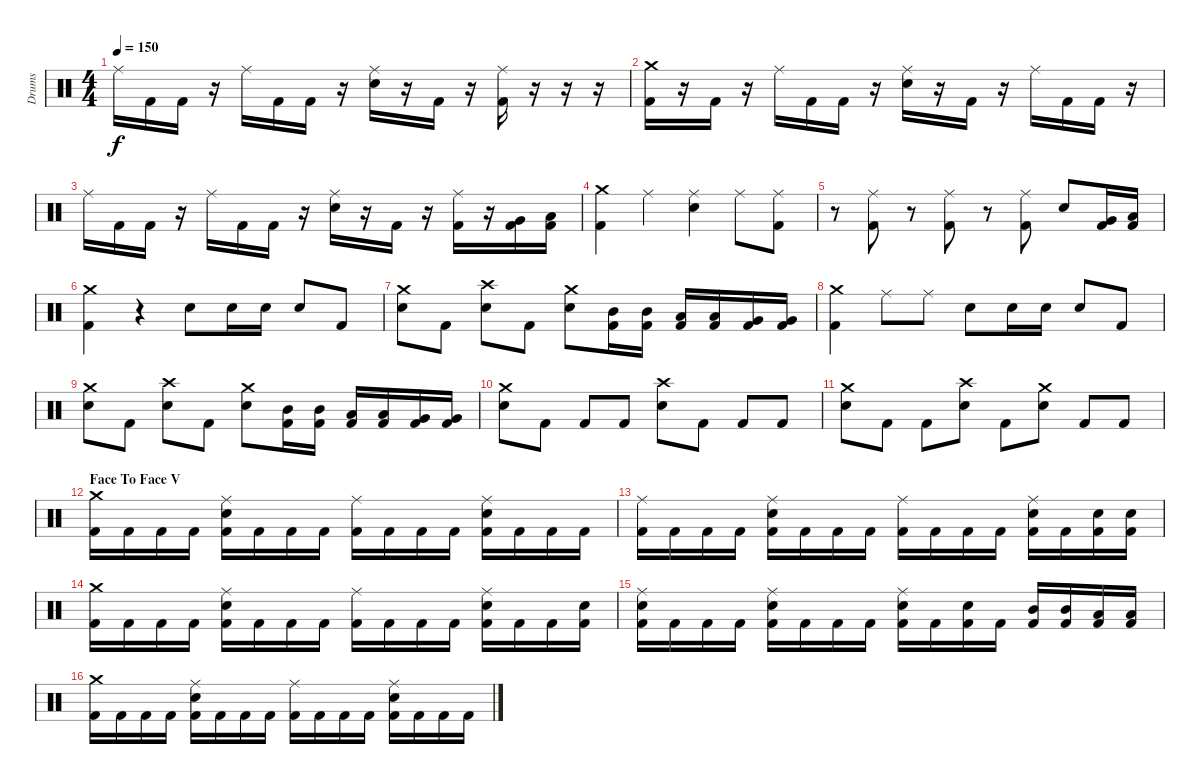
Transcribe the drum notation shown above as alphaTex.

\track ("Drums" "Drums") {instrument percussion}
\staff {score}
\articulation defaults
\ts (4 4)
\tempo 150
\clef neutral
\ks c "Ride (middle)".16{dy f} "Kick (hit) 2".16 "Kick (hit) 2".16
r.16 "Ride (middle)".16 "Kick (hit) 2".16 "Kick (hit) 2".16 r.16 ("Ride (middle)" "Electric Snare (hit)").16 r.16 "Kick (hit) 2".16 r.16 ("Ride (middle)" "Kick (hit) 2").16 r.16 r.16 r.16 |
("Crash medium (hit)" "Kick (hit) 2").16 r.16 "Kick (hit) 2".16 r.16 "Ride (middle)".16 "Kick (hit) 2".16 "Kick (hit) 2".16 r.16 ("Ride (middle)" "Electric Snare (hit)").16 r.16 "Kick (hit) 2".16 r.16 "Ride (middle)".16 "Kick (hit) 2".16 "Kick (hit) 2".16 r.16 |
"Ride (middle)".16 "Kick (hit) 2".16 "Kick (hit) 2".16 r.16 "Ride (middle)".16 "Kick (hit) 2".16 "Kick (hit) 2".16 r.16 ("Ride (middle)" "Electric Snare (hit)").16 r.16 "Kick (hit) 2".16 r.16 ("Ride (middle)" "Kick (hit) 2").16 r.16 ("Very Low Tom (hit)" "Kick (hit) 2").16 ("Low Floor Tom (hit)" "Kick (hit) 2").16 |
("Crash medium (hit)" "Kick (hit) 2").4 "Ride (middle)".4 ("Ride (middle)" "Electric Snare (hit)").4 "Ride (middle)".8 ("Ride (middle)" "Kick (hit) 2").8 |
r.8 ("Ride (middle)" "Kick (hit) 2").8 r.8 ("Ride (middle)" "Kick (hit) 2").8 r.8 ("Ride (middle)" "Kick (hit) 2").8 "Electric Snare (hit)".8 ("Very Low Tom (hit)" "Kick (hit) 2").16 ("Low Floor Tom (hit)" "Kick (hit) 2").16 |
("Crash medium (hit)" "Kick (hit) 2").4 r.4 "Electric Snare (hit)".8 "Electric Snare (hit)".16 "Electric Snare (hit)".16 "Electric Snare (hit)".8 "Kick (hit) 2".8 |
("Crash medium (hit)" "Electric Snare (hit)").8 "Kick (hit) 2".8 ("Crash high (hit)" "Electric Snare (hit)").8 "Kick (hit) 2".8 ("Crash medium (hit)" "Electric Snare (hit)").8 ("Mid Tom (hit)" "Kick (hit) 2").16 ("Mid Tom (hit)" "Kick (hit) 2").16 ("Low Tom (hit)" "Kick (hit) 2").16 ("Low Tom (hit)" "Kick (hit) 2").16 ("Very Low Tom (hit)" "Kick (hit) 2").16 ("Very Low Tom (hit)" "Kick (hit) 2").16 |
("Crash medium (hit)" "Kick (hit) 2").4 "Ride (middle)".8 "Ride (middle)".8 "Electric Snare (hit)".8 "Electric Snare (hit)".16 "Electric Snare (hit)".16 "Electric Snare (hit)".8 "Kick (hit) 2".8 |
("Crash medium (hit)" "Electric Snare (hit)").8 "Kick (hit) 2".8 ("Crash high (hit)" "Electric Snare (hit)").8 "Kick (hit) 2".8 ("Crash medium (hit)" "Electric Snare (hit)").8 ("Mid Tom (hit)" "Kick (hit) 2").16 ("Mid Tom (hit)" "Kick (hit) 2").16 ("Low Tom (hit)" "Kick (hit) 2").16 ("Low Tom (hit)" "Kick (hit) 2").16 ("Very Low Tom (hit)" "Kick (hit) 2").16 ("Very Low Tom (hit)" "Kick (hit) 2").16 |
("Crash medium (hit)" "Electric Snare (hit)").8 "Kick (hit) 2".8 "Kick (hit) 2".8 "Kick (hit) 2".8 ("Crash high (hit)" "Electric Snare (hit)").8 "Kick (hit) 2".8 "Kick (hit) 2".8 "Kick (hit) 2".8 |
("Crash medium (hit)" "Electric Snare (hit)").8 "Kick (hit) 2".8 "Kick (hit) 2".8 ("Crash high (hit)" "Electric Snare (hit)").8 "Kick (hit) 2".8 ("Crash medium (hit)" "Electric Snare (hit)").8 "Kick (hit) 2".8 "Kick (hit) 2".8 |
\section ("" "Face To Face V")
("Crash medium (hit)" "Kick (hit) 2").16 "Kick (hit) 2".16 "Kick (hit) 2".16 "Kick (hit) 2".16 ("Ride (middle)" "Electric Snare (hit)" "Kick (hit) 2").16 "Kick (hit) 2".16 "Kick (hit) 2".16 "Kick (hit) 2".16 ("Ride (middle)" "Kick (hit) 2").16 "Kick (hit) 2".16 "Kick (hit) 2".16 "Kick (hit) 2".16 ("Ride (middle)" "Electric Snare (hit)" "Kick (hit) 2").16 "Kick (hit) 2".16 "Kick (hit) 2".16 "Kick (hit) 2".16 |
("Ride (middle)" "Kick (hit) 2").16 "Kick (hit) 2".16 "Kick (hit) 2".16 "Kick (hit) 2".16 ("Ride (middle)" "Electric Snare (hit)" "Kick (hit) 2").16 "Kick (hit) 2".16 "Kick (hit) 2".16 "Kick (hit) 2".16 ("Ride (middle)" "Kick (hit) 2").16 "Kick (hit) 2".16 "Kick (hit) 2".16 "Kick (hit) 2".16 ("Ride (middle)" "Electric Snare (hit)" "Kick (hit) 2").16 "Kick (hit) 2".16 ("Electric Snare (hit)" "Kick (hit) 2").16 ("Electric Snare (hit)" "Kick (hit) 2").16 |
("Crash medium (hit)" "Kick (hit) 2").16 "Kick (hit) 2".16 "Kick (hit) 2".16 "Kick (hit) 2".16 ("Ride (middle)" "Electric Snare (hit)" "Kick (hit) 2").16 "Kick (hit) 2".16 "Kick (hit) 2".16 "Kick (hit) 2".16 ("Ride (middle)" "Kick (hit) 2").16 "Kick (hit) 2".16 "Kick (hit) 2".16 "Kick (hit) 2".16 ("Ride (middle)" "Electric Snare (hit)" "Kick (hit) 2").16 "Kick (hit) 2".16 "Kick (hit) 2".16 ("Electric Snare (hit)" "Kick (hit) 2").16 |
("Ride (middle)" "Electric Snare (hit)" "Kick (hit) 2").16 "Kick (hit) 2".16 "Kick (hit) 2".16 "Kick (hit) 2".16 ("Ride (middle)" "Electric Snare (hit)" "Kick (hit) 2").16 "Kick (hit) 2".16 "Kick (hit) 2".16 "Kick (hit) 2".16 ("Ride (middle)" "Electric Snare (hit)" "Kick (hit) 2").16 "Kick (hit) 2".16 ("Electric Snare (hit)" "Kick (hit) 2").16 "Kick (hit) 2".16 ("Mid Tom (hit)" "Kick (hit) 2").16 ("Mid Tom (hit)" "Kick (hit) 2").16 ("Low Tom (hit)" "Kick (hit) 2").16 ("Low Tom (hit)" "Kick (hit) 2").16 |
("Crash medium (hit)" "Kick (hit) 2").16 "Kick (hit) 2".16 "Kick (hit) 2".16 "Kick (hit) 2".16 ("Ride (middle)" "Electric Snare (hit)" "Kick (hit) 2").16 "Kick (hit) 2".16 "Kick (hit) 2".16 "Kick (hit) 2".16 ("Ride (middle)" "Kick (hit) 2").16 "Kick (hit) 2".16 "Kick (hit) 2".16 "Kick (hit) 2".16 ("Ride (middle)" "Electric Snare (hit)" "Kick (hit) 2").16 "Kick (hit) 2".16 "Kick (hit) 2".16 "Kick (hit) 2".16
